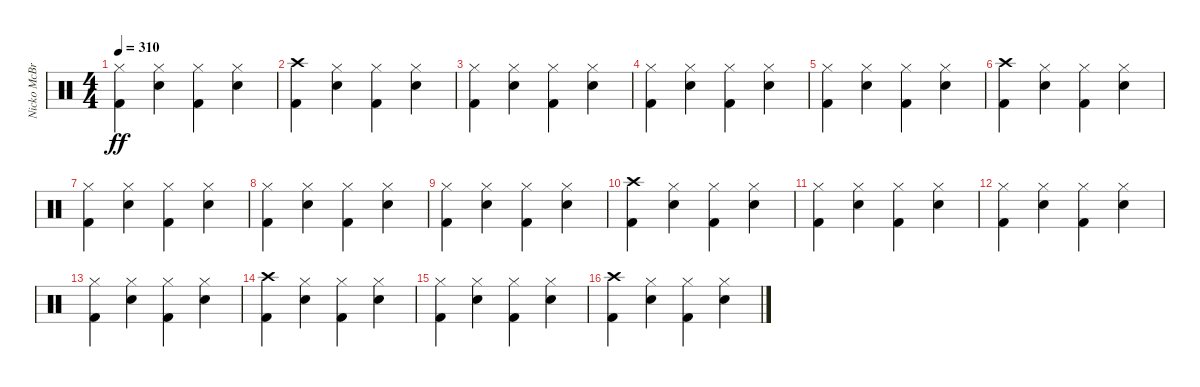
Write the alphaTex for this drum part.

\track ("Nicko McBrain" "Nicko McBr") {instrument percussion}
\staff {score}
\articulation defaults
\ts (4 4)
\tempo 310
\clef neutral
\ks c
("Kick (hit) 2" "Hi-Hat (closed)").4{dy ff} ("Snare (hit) 2" "Hi-Hat (closed)").4 ("Kick (hit) 2" "Hi-Hat (closed)").4 ("Snare (hit) 2" "Hi-Hat (closed)").4 |
("Kick (hit) 2" "Crash high (hit)").4 ("Snare (hit) 2" "Hi-Hat (closed)").4 ("Kick (hit) 2" "Hi-Hat (closed)").4 ("Snare (hit) 2" "Hi-Hat (closed)").4 |
("Kick (hit) 2" "Hi-Hat (closed)").4 ("Snare (hit) 2" "Hi-Hat (closed)").4 ("Kick (hit) 2" "Hi-Hat (closed)").4 ("Snare (hit) 2" "Hi-Hat (closed)").4 |
("Kick (hit) 2" "Hi-Hat (closed)").4 ("Snare (hit) 2" "Hi-Hat (closed)").4 ("Kick (hit) 2" "Hi-Hat (closed)").4 ("Snare (hit) 2" "Hi-Hat (closed)").4 |
("Kick (hit) 2" "Hi-Hat (closed)").4 ("Snare (hit) 2" "Hi-Hat (closed)").4 ("Kick (hit) 2" "Hi-Hat (closed)").4 ("Snare (hit) 2" "Hi-Hat (closed)").4 |
("Kick (hit) 2" "Crash high (hit)").4 ("Snare (hit) 2" "Hi-Hat (closed)").4 ("Kick (hit) 2" "Hi-Hat (closed)").4 ("Snare (hit) 2" "Hi-Hat (closed)").4 |
("Kick (hit) 2" "Hi-Hat (closed)").4 ("Snare (hit) 2" "Hi-Hat (closed)").4 ("Kick (hit) 2" "Hi-Hat (closed)").4 ("Snare (hit) 2" "Hi-Hat (closed)").4 |
("Kick (hit) 2" "Hi-Hat (closed)").4 ("Snare (hit) 2" "Hi-Hat (closed)").4 ("Kick (hit) 2" "Hi-Hat (closed)").4 ("Snare (hit) 2" "Hi-Hat (closed)").4 |
("Kick (hit) 2" "Hi-Hat (closed)").4 ("Snare (hit) 2" "Hi-Hat (closed)").4 ("Kick (hit) 2" "Hi-Hat (closed)").4 ("Snare (hit) 2" "Hi-Hat (closed)").4 |
("Kick (hit) 2" "Crash high (hit)").4 ("Snare (hit) 2" "Hi-Hat (closed)").4 ("Kick (hit) 2" "Hi-Hat (closed)").4 ("Snare (hit) 2" "Hi-Hat (closed)").4 |
("Kick (hit) 2" "Hi-Hat (closed)").4 ("Snare (hit) 2" "Hi-Hat (closed)").4 ("Kick (hit) 2" "Hi-Hat (closed)").4 ("Snare (hit) 2" "Hi-Hat (closed)").4 |
("Kick (hit) 2" "Hi-Hat (closed)").4 ("Snare (hit) 2" "Hi-Hat (closed)").4 ("Kick (hit) 2" "Hi-Hat (closed)").4 ("Snare (hit) 2" "Hi-Hat (closed)").4 |
("Kick (hit) 2" "Hi-Hat (closed)").4 ("Snare (hit) 2" "Hi-Hat (closed)").4 ("Kick (hit) 2" "Hi-Hat (closed)").4 ("Snare (hit) 2" "Hi-Hat (closed)").4 |
("Kick (hit) 2" "Crash high (hit)").4 ("Snare (hit) 2" "Hi-Hat (closed)").4 ("Kick (hit) 2" "Hi-Hat (closed)").4 ("Snare (hit) 2" "Hi-Hat (closed)").4 |
("Kick (hit) 2" "Hi-Hat (closed)").4 ("Snare (hit) 2" "Hi-Hat (closed)").4 ("Kick (hit) 2" "Hi-Hat (closed)").4 ("Snare (hit) 2" "Hi-Hat (closed)").4 |
("Kick (hit) 2" "Crash high (hit)").4 ("Snare (hit) 2" "Hi-Hat (closed)").4 ("Kick (hit) 2" "Hi-Hat (closed)").4 ("Snare (hit) 2" "Hi-Hat (closed)").4
